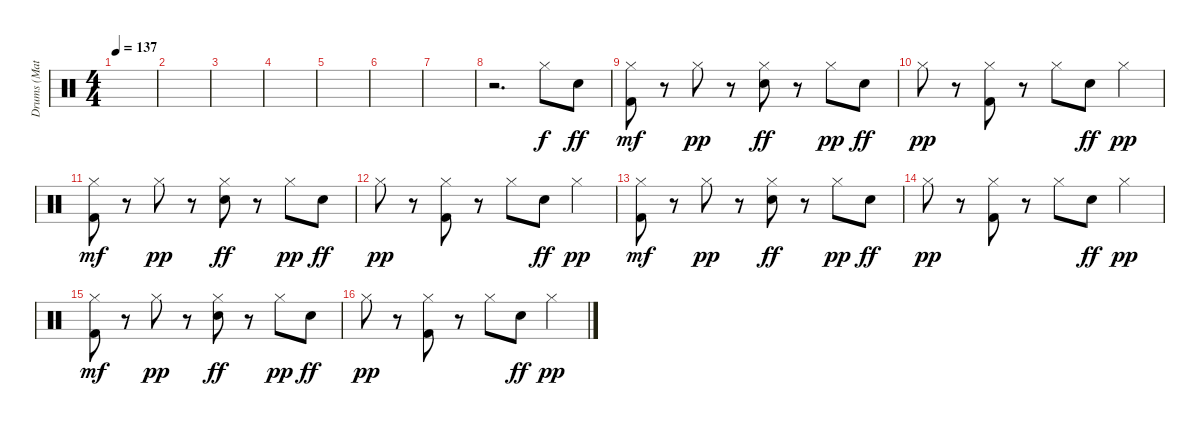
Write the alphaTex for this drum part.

\track ("Drums (Matthias)" "Drums (Mat") {instrument percussion}
\staff {score}
\articulation defaults
\ts (4 4)
\tempo 137
\clef neutral
\ks c
|
|
|
|
|
|
|
r.2{d} "Hi-Hat (closed)".8 "Electric Snare (hit)".8{dy ff} |
("Hi-Hat (closed)" "Kick (hit) 2").8{dy mf} r.8 "Hi-Hat (closed)".8{dy pp} r.8 ("Hi-Hat (closed)" "Electric Snare (hit)").8{dy ff} r.8 "Hi-Hat (closed)".8{dy pp} "Electric Snare (hit)".8{dy ff} |
"Hi-Hat (closed)".8{dy pp} r.8 ("Hi-Hat (closed)" "Kick (hit) 2").8 r.8 "Hi-Hat (closed)".8 "Electric Snare (hit)".8{dy ff} "Hi-Hat (closed)".4{dy pp} |
("Hi-Hat (closed)" "Kick (hit) 2").8{dy mf} r.8 "Hi-Hat (closed)".8{dy pp} r.8 ("Hi-Hat (closed)" "Electric Snare (hit)").8{dy ff} r.8 "Hi-Hat (closed)".8{dy pp} "Electric Snare (hit)".8{dy ff} |
"Hi-Hat (closed)".8{dy pp} r.8 ("Hi-Hat (closed)" "Kick (hit) 2").8 r.8 "Hi-Hat (closed)".8 "Electric Snare (hit)".8{dy ff} "Hi-Hat (closed)".4{dy pp} |
("Hi-Hat (closed)" "Kick (hit) 2").8{dy mf} r.8 "Hi-Hat (closed)".8{dy pp} r.8 ("Hi-Hat (closed)" "Electric Snare (hit)").8{dy ff} r.8 "Hi-Hat (closed)".8{dy pp} "Electric Snare (hit)".8{dy ff} |
"Hi-Hat (closed)".8{dy pp} r.8 ("Hi-Hat (closed)" "Kick (hit) 2").8 r.8 "Hi-Hat (closed)".8 "Electric Snare (hit)".8{dy ff} "Hi-Hat (closed)".4{dy pp} |
("Hi-Hat (closed)" "Kick (hit) 2").8{dy mf} r.8 "Hi-Hat (closed)".8{dy pp} r.8 ("Hi-Hat (closed)" "Electric Snare (hit)").8{dy ff} r.8 "Hi-Hat (closed)".8{dy pp} "Electric Snare (hit)".8{dy ff} |
"Hi-Hat (closed)".8{dy pp} r.8 ("Hi-Hat (closed)" "Kick (hit) 2").8 r.8 "Hi-Hat (closed)".8 "Electric Snare (hit)".8{dy ff} "Hi-Hat (closed)".4{dy pp}
